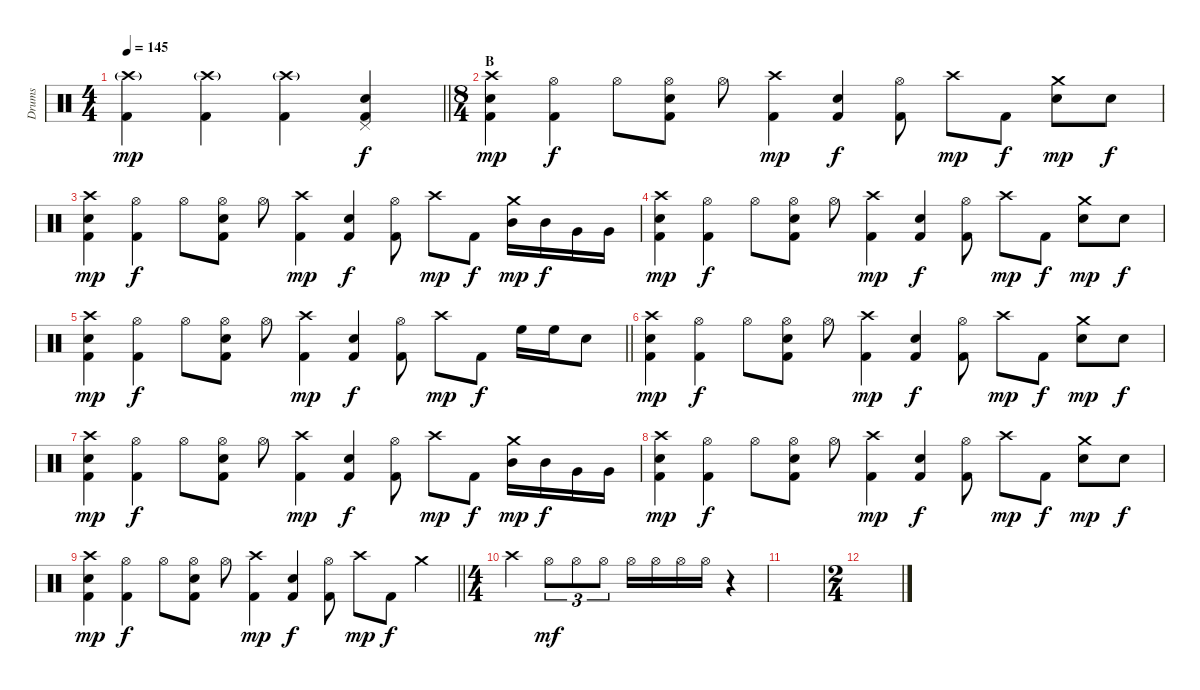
\track ("Drums" "Drums") {instrument percussion}
\staff {score}
\articulation defaults
\ts (4 4)
\tempo 145
\clef neutral
\barLineRight lightlight
\ks c
("Crash high (hit)"{g} "Kick (hit) 2").4{dy mp} ("Crash high (hit)"{g} "Kick (hit) 2").4 ("Crash high (hit)"{g} "Kick (hit) 2").4 ("Snare (hit) 2" "Pedal Hi-Hat (hit)" "Kick (hit) 2").4{dy f} |
\ts (8 4)
\section ("" "B")
("Snare (hit) 2" "Crash high (hit)" "Kick (hit) 2").4{dy mp} ("Hi-Hat (open)" "Kick (hit) 2").4{dy f} "Hi-Hat (open)".8 ("Snare (hit) 2" "Hi-Hat (open)" "Kick (hit) 2").8 "Hi-Hat (open)".8 ("Crash high (hit)" "Kick (hit) 2").4{dy mp} ("Snare (hit) 2" "Kick (hit) 2").4{dy f} ("Hi-Hat (open)" "Kick (hit) 2").8 "Crash high (hit)".8{dy mp} "Kick (hit) 2".8{dy f} ("Snare (hit) 2" "Crash medium (hit)").8{dy mp} "Snare (hit) 2".8{dy f} |
("Snare (hit) 2" "Crash high (hit)" "Kick (hit) 2").4{dy mp} ("Hi-Hat (open)" "Kick (hit) 2").4{dy f} "Hi-Hat (open)".8 ("Snare (hit) 2" "Hi-Hat (open)" "Kick (hit) 2").8 "Hi-Hat (open)".8 ("Crash high (hit)" "Kick (hit) 2").4{dy mp} ("Snare (hit) 2" "Kick (hit) 2").4{dy f} ("Hi-Hat (open)" "Kick (hit) 2").8 "Crash high (hit)".8{dy mp} "Kick (hit) 2".8{dy f} ("Mid Tom (hit)" "Crash medium (hit)").16{dy mp} "Mid Tom (hit)".16{dy f} "Very Low Tom (hit)".16 "Very Low Tom (hit)".16 |
("Snare (hit) 2" "Crash high (hit)" "Kick (hit) 2").4{dy mp} ("Hi-Hat (open)" "Kick (hit) 2").4{dy f} "Hi-Hat (open)".8 ("Snare (hit) 2" "Hi-Hat (open)" "Kick (hit) 2").8 "Hi-Hat (open)".8 ("Crash high (hit)" "Kick (hit) 2").4{dy mp} ("Snare (hit) 2" "Kick (hit) 2").4{dy f} ("Hi-Hat (open)" "Kick (hit) 2").8 "Crash high (hit)".8{dy mp} "Kick (hit) 2".8{dy f} ("Snare (hit) 2" "Crash medium (hit)").8{dy mp} "Snare (hit) 2".8{dy f} |
\barLineRight lightlight
("Snare (hit) 2" "Crash high (hit)" "Kick (hit) 2").4{dy mp} ("Hi-Hat (open)" "Kick (hit) 2").4{dy f} "Hi-Hat (open)".8 ("Snare (hit) 2" "Hi-Hat (open)" "Kick (hit) 2").8 "Hi-Hat (open)".8 ("Crash high (hit)" "Kick (hit) 2").4{dy mp} ("Snare (hit) 2" "Kick (hit) 2").4{dy f} ("Hi-Hat (open)" "Kick (hit) 2").8 "Crash high (hit)".8{dy mp} "Kick (hit) 2".8{dy f} "High Floor Tom (hit)".16 "High Floor Tom (hit)".16 "Snare (hit) 2".8 |
("Snare (hit) 2" "Crash high (hit)" "Kick (hit) 2").4{dy mp} ("Hi-Hat (open)" "Kick (hit) 2").4{dy f} "Hi-Hat (open)".8 ("Snare (hit) 2" "Hi-Hat (open)" "Kick (hit) 2").8 "Hi-Hat (open)".8 ("Crash high (hit)" "Kick (hit) 2").4{dy mp} ("Snare (hit) 2" "Kick (hit) 2").4{dy f} ("Hi-Hat (open)" "Kick (hit) 2").8 "Crash high (hit)".8{dy mp} "Kick (hit) 2".8{dy f} ("Snare (hit) 2" "Crash medium (hit)").8{dy mp} "Snare (hit) 2".8{dy f} |
("Snare (hit) 2" "Crash high (hit)" "Kick (hit) 2").4{dy mp} ("Hi-Hat (open)" "Kick (hit) 2").4{dy f} "Hi-Hat (open)".8 ("Snare (hit) 2" "Hi-Hat (open)" "Kick (hit) 2").8 "Hi-Hat (open)".8 ("Crash high (hit)" "Kick (hit) 2").4{dy mp} ("Snare (hit) 2" "Kick (hit) 2").4{dy f} ("Hi-Hat (open)" "Kick (hit) 2").8 "Crash high (hit)".8{dy mp} "Kick (hit) 2".8{dy f} ("Mid Tom (hit)" "Crash medium (hit)").16{dy mp} "Mid Tom (hit)".16{dy f} "Very Low Tom (hit)".16 "Very Low Tom (hit)".16 |
("Snare (hit) 2" "Crash high (hit)" "Kick (hit) 2").4{dy mp} ("Hi-Hat (open)" "Kick (hit) 2").4{dy f} "Hi-Hat (open)".8 ("Snare (hit) 2" "Hi-Hat (open)" "Kick (hit) 2").8 "Hi-Hat (open)".8 ("Crash high (hit)" "Kick (hit) 2").4{dy mp} ("Snare (hit) 2" "Kick (hit) 2").4{dy f} ("Hi-Hat (open)" "Kick (hit) 2").8 "Crash high (hit)".8{dy mp} "Kick (hit) 2".8{dy f} ("Snare (hit) 2" "Crash medium (hit)").8{dy mp} "Snare (hit) 2".8{dy f} |
\barLineRight lightlight
("Snare (hit) 2" "Crash high (hit)" "Kick (hit) 2").4{dy mp} ("Hi-Hat (open)" "Kick (hit) 2").4{dy f} "Hi-Hat (open)".8 ("Snare (hit) 2" "Hi-Hat (open)" "Kick (hit) 2").8 "Hi-Hat (open)".8 ("Crash high (hit)" "Kick (hit) 2").4{dy mp} ("Snare (hit) 2" "Kick (hit) 2").4{dy f} ("Hi-Hat (open)" "Kick (hit) 2").8 "Crash high (hit)".8{dy mp} "Kick (hit) 2".8{dy f} "Crash medium (hit)".4 |
\ts (4 4)
"Crash high (hit)".4 "Hi-Hat (open)".8{tu (3 2) dy mf} "Hi-Hat (open)".8{tu (3 2)} "Hi-Hat (open)".8{tu (3 2)} "Hi-Hat (open)".16 "Hi-Hat (open)".16 "Hi-Hat (open)".16 "Hi-Hat (open)".16 r.4 |
|
\ts (2 4)
